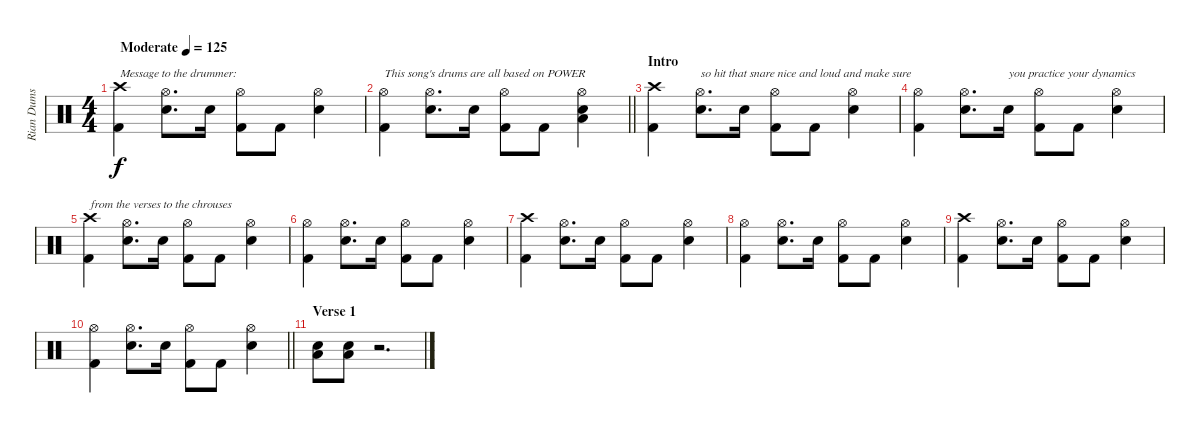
\track ("Rian Dums" "Rian Dums") {instrument percussion}
\staff {score}
\articulation defaults
\ts (4 4)
\tempo (125 "Moderate")
\clef neutral
\ks c
("Crash high (hit)" "Kick (hit) 2").4{txt "Message to the drummer:" dy f} ("Hi-Hat (open)" "Snare (hit) 2").8{d} "Snare (hit) 2".16 ("Hi-Hat (open)" "Kick (hit) 2").8 "Kick (hit) 2".8 ("Hi-Hat (open)" "Snare (hit) 2").4 |
\barLineRight lightlight
("Hi-Hat (open)" "Kick (hit) 2").4{txt "This song's drums are all based on POWER"} ("Hi-Hat (open)" "Snare (hit) 2").8{d} "Snare (hit) 2".16 ("Hi-Hat (open)" "Kick (hit) 2").8 "Kick (hit) 2".8 ("Low Floor Tom (hit)" "Hi-Hat (open)" "Snare (hit) 2").4 |
\section ("" "Intro")
("Crash high (hit)" "Kick (hit) 2").4 ("Hi-Hat (open)" "Snare (hit) 2").8{d txt "so hit that snare nice and loud and make sure"} "Snare (hit) 2".16 ("Hi-Hat (open)" "Kick (hit) 2").8 "Kick (hit) 2".8 ("Hi-Hat (open)" "Snare (hit) 2").4 |
("Hi-Hat (open)" "Kick (hit) 2").4 ("Hi-Hat (open)" "Snare (hit) 2").8{d} "Snare (hit) 2".16{txt "you practice your dynamics"} ("Hi-Hat (open)" "Kick (hit) 2").8 "Kick (hit) 2".8 ("Hi-Hat (open)" "Snare (hit) 2").4 |
("Crash high (hit)" "Kick (hit) 2").4{txt "from the verses to the chrouses"} ("Hi-Hat (open)" "Snare (hit) 2").8{d} "Snare (hit) 2".16 ("Hi-Hat (open)" "Kick (hit) 2").8 "Kick (hit) 2".8 ("Hi-Hat (open)" "Snare (hit) 2").4 |
("Hi-Hat (open)" "Kick (hit) 2").4 ("Hi-Hat (open)" "Snare (hit) 2").8{d} "Snare (hit) 2".16 ("Hi-Hat (open)" "Kick (hit) 2").8 "Kick (hit) 2".8 ("Hi-Hat (open)" "Snare (hit) 2").4 |
("Crash high (hit)" "Kick (hit) 2").4 ("Hi-Hat (open)" "Snare (hit) 2").8{d} "Snare (hit) 2".16 ("Hi-Hat (open)" "Kick (hit) 2").8 "Kick (hit) 2".8 ("Hi-Hat (open)" "Snare (hit) 2").4 |
("Hi-Hat (open)" "Kick (hit) 2").4 ("Hi-Hat (open)" "Snare (hit) 2").8{d} "Snare (hit) 2".16 ("Hi-Hat (open)" "Kick (hit) 2").8 "Kick (hit) 2".8 ("Hi-Hat (open)" "Snare (hit) 2").4 |
("Crash high (hit)" "Kick (hit) 2").4 ("Hi-Hat (open)" "Snare (hit) 2").8{d} "Snare (hit) 2".16 ("Hi-Hat (open)" "Kick (hit) 2").8 "Kick (hit) 2".8 ("Hi-Hat (open)" "Snare (hit) 2").4 |
\barLineRight lightlight
("Hi-Hat (open)" "Kick (hit) 2").4 ("Hi-Hat (open)" "Snare (hit) 2").8{d} "Snare (hit) 2".16 ("Hi-Hat (open)" "Kick (hit) 2").8 "Kick (hit) 2".8 ("Hi-Hat (open)" "Snare (hit) 2").4 |
\section ("" "Verse 1")
("Low Floor Tom (hit)" "Snare (hit) 2").8 ("Low Floor Tom (hit)" "Snare (hit) 2").8 r.2{d}
